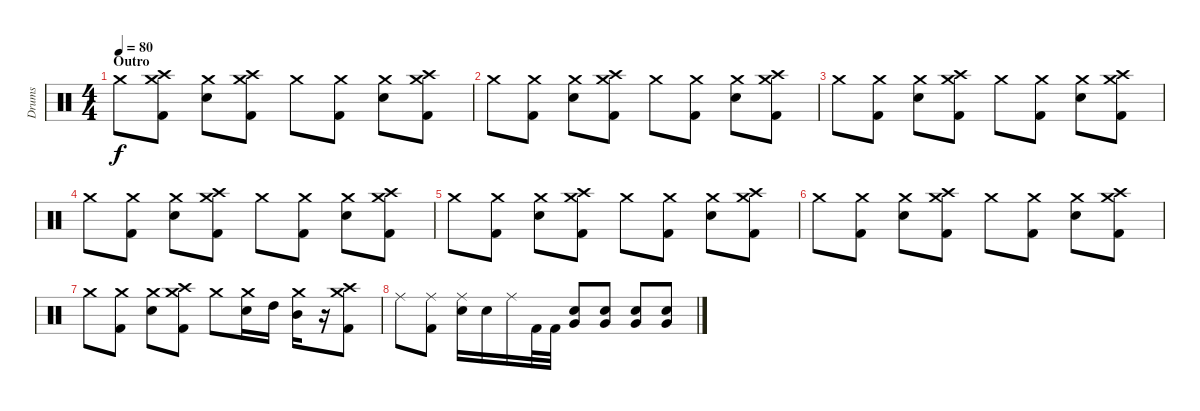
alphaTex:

\track ("Drums" "Drums") {instrument percussion}
\staff {score}
\articulation defaults
\ts (4 4)
\section ("" "Outro")
\tempo 80
\clef neutral
\ks c "Crash medium (hit)".8{dy f}
("Crash medium (hit)" "Crash high (hit)" "Kick (hit) 2").8 ("Crash medium (hit)" "Electric Snare (hit)").8 ("Crash medium (hit)" "Crash high (hit)" "Kick (hit) 2").8 "Crash medium (hit)".8 ("Crash medium (hit)" "Kick (hit) 2").8 ("Crash medium (hit)" "Electric Snare (hit)").8 ("Crash medium (hit)" "Crash high (hit)" "Kick (hit) 2").8 |
"Crash medium (hit)".8 ("Crash medium (hit)" "Kick (hit) 2").8 ("Crash medium (hit)" "Electric Snare (hit)").8 ("Crash medium (hit)" "Crash high (hit)" "Kick (hit) 2").8 "Crash medium (hit)".8 ("Crash medium (hit)" "Kick (hit) 2").8 ("Crash medium (hit)" "Electric Snare (hit)").8 ("Crash medium (hit)" "Crash high (hit)" "Kick (hit) 2").8 |
"Crash medium (hit)".8 ("Crash medium (hit)" "Kick (hit) 2").8 ("Crash medium (hit)" "Electric Snare (hit)").8 ("Crash medium (hit)" "Crash high (hit)" "Kick (hit) 2").8 "Crash medium (hit)".8 ("Crash medium (hit)" "Kick (hit) 2").8 ("Crash medium (hit)" "Electric Snare (hit)").8 ("Crash medium (hit)" "Crash high (hit)" "Kick (hit) 2").8 |
"Crash medium (hit)".8 ("Crash medium (hit)" "Kick (hit) 2").8 ("Crash medium (hit)" "Electric Snare (hit)").8 ("Crash medium (hit)" "Crash high (hit)" "Kick (hit) 2").8 "Crash medium (hit)".8 ("Crash medium (hit)" "Kick (hit) 2").8 ("Crash medium (hit)" "Electric Snare (hit)").8 ("Crash medium (hit)" "Crash high (hit)" "Kick (hit) 2").8 |
"Crash medium (hit)".8 ("Crash medium (hit)" "Kick (hit) 2").8 ("Crash medium (hit)" "Electric Snare (hit)").8 ("Crash medium (hit)" "Crash high (hit)" "Kick (hit) 2").8 "Crash medium (hit)".8 ("Crash medium (hit)" "Kick (hit) 2").8 ("Crash medium (hit)" "Electric Snare (hit)").8 ("Crash medium (hit)" "Crash high (hit)" "Kick (hit) 2").8 |
"Crash medium (hit)".8 ("Crash medium (hit)" "Kick (hit) 2").8 ("Crash medium (hit)" "Electric Snare (hit)").8 ("Crash medium (hit)" "Crash high (hit)" "Kick (hit) 2").8 "Crash medium (hit)".8 ("Crash medium (hit)" "Kick (hit) 2").8 ("Crash medium (hit)" "Electric Snare (hit)").8 ("Crash medium (hit)" "Crash high (hit)" "Kick (hit) 2").8 |
"Crash medium (hit)".8 ("Crash medium (hit)" "Kick (hit) 2").8 ("Crash medium (hit)" "Electric Snare (hit)").8 ("Crash medium (hit)" "Crash high (hit)" "Kick (hit) 2").8 "Crash medium (hit)".8 ("Crash medium (hit)" "Electric Snare (hit)").16 "High Tom (hit)".16 ("Crash medium (hit)" "Mid Tom (hit)").16 r.16 ("Crash medium (hit)" "Crash high (hit)" "Kick (hit) 2").8 |
"Ride (middle)".8 ("Ride (middle)" "Kick (hit) 2").8 ("Ride (middle)" "Electric Snare (hit)").16 "Electric Snare (hit)".16 "Ride (middle)".16 "Kick (hit) 2".32 "Kick (hit) 2".32 ("Electric Snare (hit)" "Very Low Tom (hit)").8 ("Electric Snare (hit)" "Very Low Tom (hit)").8 ("Electric Snare (hit)" "Very Low Tom (hit)").8 ("Electric Snare (hit)" "Very Low Tom (hit)").8
